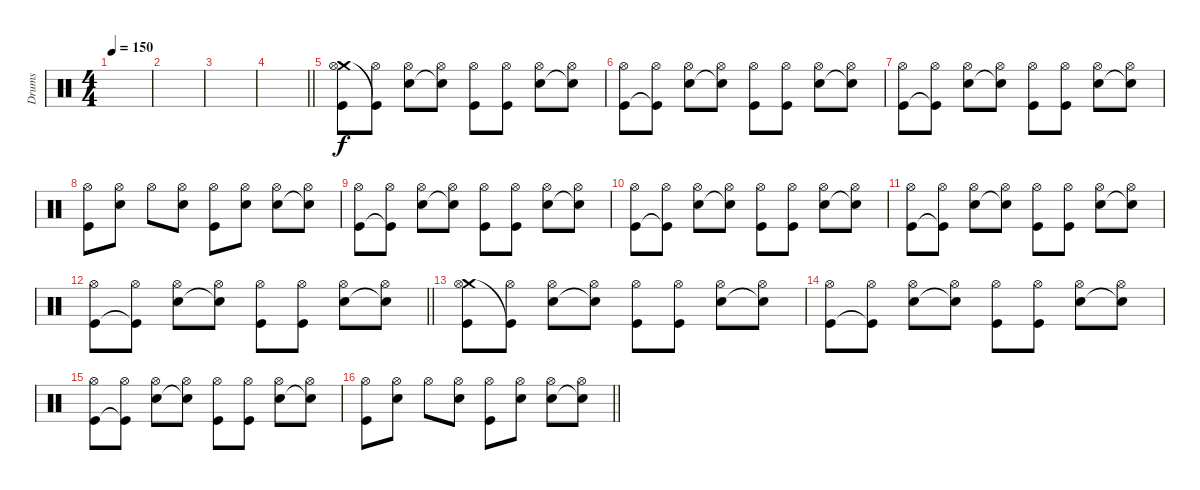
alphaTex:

\track ("Drums" "Drums") {instrument percussion}
\staff {score}
\articulation defaults
\ts (4 4)
\tempo 150
\clef neutral
\ks c
|
|
|
\barLineRight lightlight
|
("Crash medium (hit)" "Hi-Hat (open)" "Kick (hit)").8 ("Hi-Hat (open)" "Kick (hit)"{t}).8 ("Hi-Hat (open)" "Electric Snare (hit)").8 ("Hi-Hat (open)" "Snare (hit)"{t}).8 ("Hi-Hat (open)" "Kick (hit)").8 ("Hi-Hat (open)" "Kick (hit)").8 ("Hi-Hat (open)" "Electric Snare (hit)").8 ("Hi-Hat (open)" "Snare (hit)"{t}).8 |
("Hi-Hat (open)" "Kick (hit)").8 ("Hi-Hat (open)" "Kick (hit)"{t}).8 ("Hi-Hat (open)" "Electric Snare (hit)").8 ("Hi-Hat (open)" "Snare (hit)"{t}).8 ("Hi-Hat (open)" "Kick (hit)").8 ("Hi-Hat (open)" "Kick (hit)").8 ("Hi-Hat (open)" "Electric Snare (hit)").8 ("Hi-Hat (open)" "Snare (hit)"{t}).8 |
("Hi-Hat (open)" "Kick (hit)").8 ("Hi-Hat (open)" "Kick (hit)"{t}).8 ("Hi-Hat (open)" "Electric Snare (hit)").8 ("Hi-Hat (open)" "Snare (hit)"{t}).8 ("Hi-Hat (open)" "Kick (hit)").8 ("Hi-Hat (open)" "Kick (hit)").8 ("Hi-Hat (open)" "Electric Snare (hit)").8 ("Hi-Hat (open)" "Snare (hit)"{t}).8 |
("Hi-Hat (open)" "Kick (hit)").8 ("Hi-Hat (open)" "Electric Snare (hit)").8 "Hi-Hat (open)".8 ("Hi-Hat (open)" "Electric Snare (hit)").8 ("Hi-Hat (open)" "Kick (hit)").8 ("Hi-Hat (open)" "Electric Snare (hit)").8 ("Hi-Hat (open)" "Electric Snare (hit)").8 ("Hi-Hat (open)" "Snare (hit)"{t}).8 |
("Hi-Hat (open)" "Kick (hit)").8 ("Hi-Hat (open)" "Kick (hit)"{t}).8 ("Hi-Hat (open)" "Electric Snare (hit)").8 ("Hi-Hat (open)" "Snare (hit)"{t}).8 ("Hi-Hat (open)" "Kick (hit)").8 ("Hi-Hat (open)" "Kick (hit)").8 ("Hi-Hat (open)" "Electric Snare (hit)").8 ("Hi-Hat (open)" "Snare (hit)"{t}).8 |
("Hi-Hat (open)" "Kick (hit)").8 ("Hi-Hat (open)" "Kick (hit)"{t}).8 ("Hi-Hat (open)" "Electric Snare (hit)").8 ("Hi-Hat (open)" "Snare (hit)"{t}).8 ("Hi-Hat (open)" "Kick (hit)").8 ("Hi-Hat (open)" "Kick (hit)").8 ("Hi-Hat (open)" "Electric Snare (hit)").8 ("Hi-Hat (open)" "Snare (hit)"{t}).8 |
("Hi-Hat (open)" "Kick (hit)").8 ("Hi-Hat (open)" "Kick (hit)"{t}).8 ("Hi-Hat (open)" "Electric Snare (hit)").8 ("Hi-Hat (open)" "Snare (hit)"{t}).8 ("Hi-Hat (open)" "Kick (hit)").8 ("Hi-Hat (open)" "Kick (hit)").8 ("Hi-Hat (open)" "Electric Snare (hit)").8 ("Hi-Hat (open)" "Snare (hit)"{t}).8 |
\barLineRight lightlight
("Hi-Hat (open)" "Kick (hit)").8 ("Hi-Hat (open)" "Kick (hit)"{t}).8 ("Hi-Hat (open)" "Electric Snare (hit)").8 ("Hi-Hat (open)" "Snare (hit)"{t}).8 ("Hi-Hat (open)" "Kick (hit)").8 ("Hi-Hat (open)" "Kick (hit)").8 ("Hi-Hat (open)" "Electric Snare (hit)").8 ("Hi-Hat (open)" "Snare (hit)"{t}).8 |
("Crash medium (hit)" "Hi-Hat (open)" "Kick (hit)").8 ("Hi-Hat (open)" "Kick (hit)"{t}).8 ("Hi-Hat (open)" "Electric Snare (hit)").8 ("Hi-Hat (open)" "Snare (hit)"{t}).8 ("Hi-Hat (open)" "Kick (hit)").8 ("Hi-Hat (open)" "Kick (hit)").8 ("Hi-Hat (open)" "Electric Snare (hit)").8 ("Hi-Hat (open)" "Snare (hit)"{t}).8 |
("Hi-Hat (open)" "Kick (hit)").8 ("Hi-Hat (open)" "Kick (hit)"{t}).8 ("Hi-Hat (open)" "Electric Snare (hit)").8 ("Hi-Hat (open)" "Snare (hit)"{t}).8 ("Hi-Hat (open)" "Kick (hit)").8 ("Hi-Hat (open)" "Kick (hit)").8 ("Hi-Hat (open)" "Electric Snare (hit)").8 ("Hi-Hat (open)" "Snare (hit)"{t}).8 |
("Hi-Hat (open)" "Kick (hit)").8 ("Hi-Hat (open)" "Kick (hit)"{t}).8 ("Hi-Hat (open)" "Electric Snare (hit)").8 ("Hi-Hat (open)" "Snare (hit)"{t}).8 ("Hi-Hat (open)" "Kick (hit)").8 ("Hi-Hat (open)" "Kick (hit)").8 ("Hi-Hat (open)" "Electric Snare (hit)").8 ("Hi-Hat (open)" "Snare (hit)"{t}).8 |
\barLineRight lightlight
("Hi-Hat (open)" "Kick (hit)").8 ("Hi-Hat (open)" "Electric Snare (hit)").8 "Hi-Hat (open)".8 ("Hi-Hat (open)" "Electric Snare (hit)").8 ("Hi-Hat (open)" "Kick (hit)").8 ("Hi-Hat (open)" "Electric Snare (hit)").8 ("Hi-Hat (open)" "Electric Snare (hit)").8 ("Hi-Hat (open)" "Snare (hit)"{t}).8
